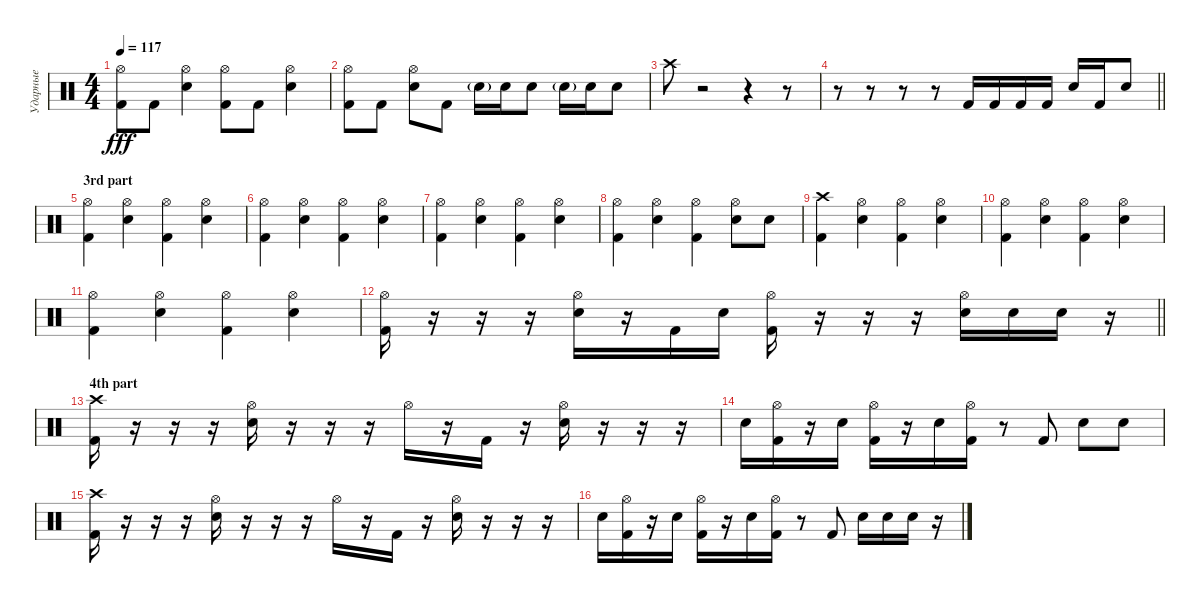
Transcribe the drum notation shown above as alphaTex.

\track ("Ударные" "Ударные") {instrument percussion}
\staff {score}
\articulation defaults
\ts (4 4)
\tempo 117
\clef neutral
\ks c
("Hi-Hat (open)" "Kick (hit) 2").8{dy fff} "Kick (hit) 2".8 ("Hi-Hat (open)" "Snare (hit) 2").4 ("Hi-Hat (open)" "Kick (hit) 2").8 "Kick (hit) 2".8 ("Hi-Hat (open)" "Snare (hit) 2").4 |
("Hi-Hat (open)" "Kick (hit) 2").8 "Kick (hit) 2".8 ("Hi-Hat (open)" "Snare (hit) 2").8 "Kick (hit) 2".8 "Snare (hit) 2"{g}.16 "Snare (hit) 2".16 "Snare (hit) 2".8 "Snare (hit) 2"{g}.16 "Snare (hit) 2".16 "Snare (hit) 2".8 |
"Crash high (hit)".8 r.2 r.4 r.8 |
\barLineRight lightlight
r.8 r.8 r.8 r.8 "Kick (hit) 2".16 "Kick (hit) 2".16 "Kick (hit) 2".16 "Kick (hit) 2".16 "Snare (hit) 2".16 "Kick (hit) 2".16 "Snare (hit) 2".8 |
\section ("" "3rd part")
("Hi-Hat (open)" "Kick (hit) 2").4 ("Hi-Hat (open)" "Snare (hit) 2").4 ("Hi-Hat (open)" "Kick (hit) 2").4 ("Hi-Hat (open)" "Snare (hit) 2").4 |
("Hi-Hat (open)" "Kick (hit) 2").4 ("Hi-Hat (open)" "Snare (hit) 2").4 ("Hi-Hat (open)" "Kick (hit) 2").4 ("Hi-Hat (open)" "Snare (hit) 2").4 |
("Hi-Hat (open)" "Kick (hit) 2").4 ("Hi-Hat (open)" "Snare (hit) 2").4 ("Hi-Hat (open)" "Kick (hit) 2").4 ("Hi-Hat (open)" "Snare (hit) 2").4 |
("Hi-Hat (open)" "Kick (hit) 2").4 ("Hi-Hat (open)" "Snare (hit) 2").4 ("Hi-Hat (open)" "Kick (hit) 2").4 ("Hi-Hat (open)" "Snare (hit) 2").8 "Snare (hit) 2".8 |
("Crash high (hit)" "Kick (hit) 2").4 ("Hi-Hat (open)" "Snare (hit) 2").4 ("Hi-Hat (open)" "Kick (hit) 2").4 ("Hi-Hat (open)" "Snare (hit) 2").4 |
("Hi-Hat (open)" "Kick (hit) 2").4 ("Hi-Hat (open)" "Snare (hit) 2").4 ("Hi-Hat (open)" "Kick (hit) 2").4 ("Hi-Hat (open)" "Snare (hit) 2").4 |
("Hi-Hat (open)" "Kick (hit) 2").4 ("Hi-Hat (open)" "Snare (hit) 2").4 ("Hi-Hat (open)" "Kick (hit) 2").4 ("Hi-Hat (open)" "Snare (hit) 2").4 |
\barLineRight lightlight
("Hi-Hat (open)" "Kick (hit) 2").16 r.16 r.16 r.16 ("Hi-Hat (open)" "Snare (hit) 2").16 r.16 "Kick (hit) 2".16 "Snare (hit) 2".16 ("Hi-Hat (open)" "Kick (hit) 2").16 r.16 r.16 r.16 ("Hi-Hat (open)" "Snare (hit) 2").16 "Snare (hit) 2".16 "Snare (hit) 2".16 r.16 |
\section ("" "4th part")
("Crash high (hit)" "Kick (hit) 2").16 r.16 r.16 r.16 ("Hi-Hat (open)" "Snare (hit) 2").16 r.16 r.16 r.16 "Hi-Hat (open)".16 r.16 "Kick (hit) 2".16 r.16 ("Hi-Hat (open)" "Snare (hit) 2").16 r.16 r.16 r.16 |
"Snare (hit) 2".16 ("Kick (hit) 2" "Hi-Hat (open)").16 r.16 "Snare (hit) 2".16 ("Kick (hit) 2" "Hi-Hat (open)").16 r.16 "Snare (hit) 2".16 ("Kick (hit) 2" "Hi-Hat (open)").16 r.8 "Kick (hit) 2".8 "Snare (hit) 2".8 "Snare (hit) 2".8 |
("Crash high (hit)" "Kick (hit) 2").16 r.16 r.16 r.16 ("Hi-Hat (open)" "Snare (hit) 2").16 r.16 r.16 r.16 "Hi-Hat (open)".16 r.16 "Kick (hit) 2".16 r.16 ("Hi-Hat (open)" "Snare (hit) 2").16 r.16 r.16 r.16 |
"Snare (hit) 2".16 ("Kick (hit) 2" "Hi-Hat (open)").16 r.16 "Snare (hit) 2".16 ("Kick (hit) 2" "Hi-Hat (open)").16 r.16 "Snare (hit) 2".16 ("Kick (hit) 2" "Hi-Hat (open)").16 r.8 "Kick (hit) 2".8 "Snare (hit) 2".16 "Snare (hit) 2".16 "Snare (hit) 2".16 r.16
